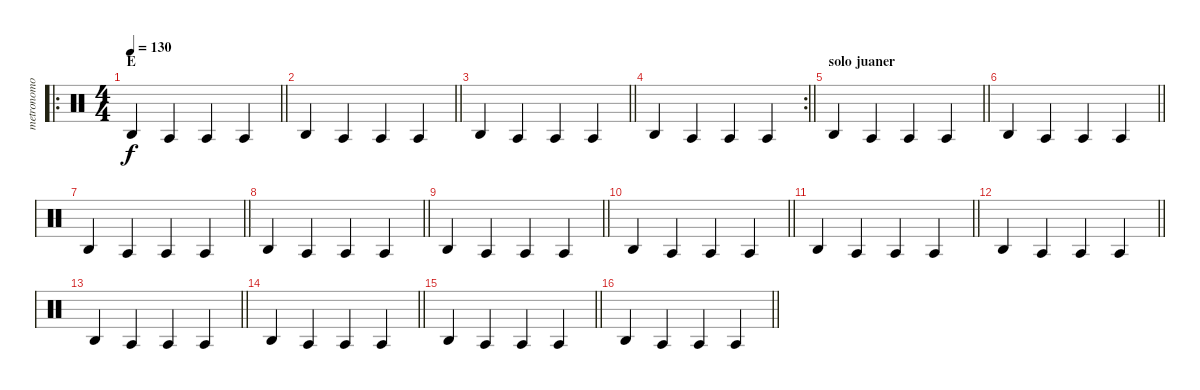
\track ("metronomo" "metronomo") {mute instrument percussion}
\staff {score}
\articulation defaults
\ro
\ts (4 4)
\section ("" "E")
\tempo 130
\clef neutral
\barLineRight lightlight
\ks c "Agogo high (hit)".4{dy f} "Agogo tow (hit)".4 "Agogo tow (hit)".4 "Agogo tow (hit)".4
|
\barLineRight lightlight "Agogo high (hit)".4 "Agogo tow (hit)".4 "Agogo tow (hit)".4 "Agogo tow (hit)".4
|
\barLineRight lightlight "Agogo high (hit)".4 "Agogo tow (hit)".4 "Agogo tow (hit)".4 "Agogo tow (hit)".4
|
\rc 2
\barLineRight lightlight "Agogo high (hit)".4 "Agogo tow (hit)".4 "Agogo tow (hit)".4 "Agogo tow (hit)".4
|
\section ("" "solo juaner")
\barLineRight lightlight "Agogo high (hit)".4 "Agogo tow (hit)".4 "Agogo tow (hit)".4 "Agogo tow (hit)".4
|
\barLineRight lightlight "Agogo high (hit)".4 "Agogo tow (hit)".4 "Agogo tow (hit)".4 "Agogo tow (hit)".4
|
\barLineRight lightlight "Agogo high (hit)".4 "Agogo tow (hit)".4 "Agogo tow (hit)".4 "Agogo tow (hit)".4
|
\barLineRight lightlight "Agogo high (hit)".4 "Agogo tow (hit)".4 "Agogo tow (hit)".4 "Agogo tow (hit)".4
|
\barLineRight lightlight "Agogo high (hit)".4 "Agogo tow (hit)".4 "Agogo tow (hit)".4 "Agogo tow (hit)".4
|
\barLineRight lightlight "Agogo high (hit)".4 "Agogo tow (hit)".4 "Agogo tow (hit)".4 "Agogo tow (hit)".4
|
\barLineRight lightlight "Agogo high (hit)".4 "Agogo tow (hit)".4 "Agogo tow (hit)".4 "Agogo tow (hit)".4
|
\barLineRight lightlight "Agogo high (hit)".4 "Agogo tow (hit)".4 "Agogo tow (hit)".4 "Agogo tow (hit)".4
|
\barLineRight lightlight "Agogo high (hit)".4 "Agogo tow (hit)".4 "Agogo tow (hit)".4 "Agogo tow (hit)".4
|
\barLineRight lightlight "Agogo high (hit)".4 "Agogo tow (hit)".4 "Agogo tow (hit)".4 "Agogo tow (hit)".4
|
\barLineRight lightlight "Agogo high (hit)".4 "Agogo tow (hit)".4 "Agogo tow (hit)".4 "Agogo tow (hit)".4
|
\barLineRight lightlight "Agogo high (hit)".4 "Agogo tow (hit)".4 "Agogo tow (hit)".4 "Agogo tow (hit)".4
